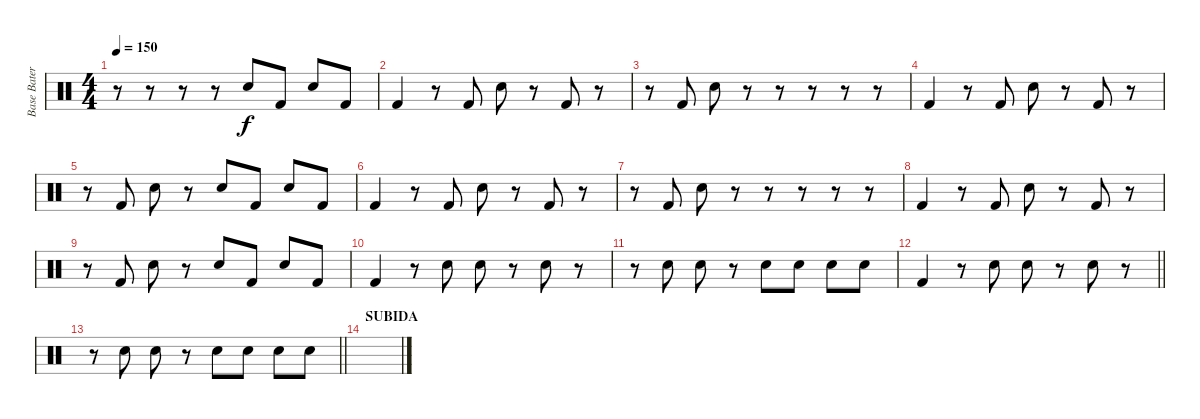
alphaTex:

\track ("Base Batería" "Base Bater") {instrument percussion}
\staff {score}
\articulation defaults
\ts (4 4)
\tempo 150
\clef neutral
\ks c
r.8{dy f} r.8 r.8 r.8 "Electric Snare (hit)".8 "Kick (hit) 2".8 "Electric Snare (hit)".8 "Kick (hit) 2".8 |
"Kick (hit) 2".4 r.8 "Kick (hit) 2".8 "Electric Snare (hit)".8 r.8 "Kick (hit) 2".8 r.8 |
r.8 "Kick (hit) 2".8 "Electric Snare (hit)".8 r.8 r.8 r.8 r.8 r.8 |
"Kick (hit) 2".4 r.8 "Kick (hit) 2".8 "Electric Snare (hit)".8 r.8 "Kick (hit) 2".8 r.8 |
r.8 "Kick (hit) 2".8 "Electric Snare (hit)".8 r.8 "Electric Snare (hit)".8 "Kick (hit) 2".8 "Electric Snare (hit)".8 "Kick (hit) 2".8 |
"Kick (hit) 2".4 r.8 "Kick (hit) 2".8 "Electric Snare (hit)".8 r.8 "Kick (hit) 2".8 r.8 |
r.8 "Kick (hit) 2".8 "Electric Snare (hit)".8 r.8 r.8 r.8 r.8 r.8 |
"Kick (hit) 2".4 r.8 "Kick (hit) 2".8 "Electric Snare (hit)".8 r.8 "Kick (hit) 2".8 r.8 |
r.8 "Kick (hit) 2".8 "Electric Snare (hit)".8 r.8 "Electric Snare (hit)".8 "Kick (hit) 2".8 "Electric Snare (hit)".8 "Kick (hit) 2".8 |
"Kick (hit) 2".4 r.8 "Electric Snare (hit)".8 "Electric Snare (hit)".8 r.8 "Electric Snare (hit)".8 r.8 |
r.8 "Electric Snare (hit)".8 "Electric Snare (hit)".8 r.8 "Electric Snare (hit)".8 "Electric Snare (hit)".8 "Electric Snare (hit)".8 "Electric Snare (hit)".8 |
\barLineRight lightlight "Kick (hit) 2".4
r.8 "Electric Snare (hit)".8 "Electric Snare (hit)".8 r.8 "Electric Snare (hit)".8 r.8 |
\barLineRight lightlight
r.8 "Electric Snare (hit)".8 "Electric Snare (hit)".8 r.8 "Electric Snare (hit)".8 "Electric Snare (hit)".8 "Electric Snare (hit)".8 "Electric Snare (hit)".8 |
\section ("" "SUBIDA")
